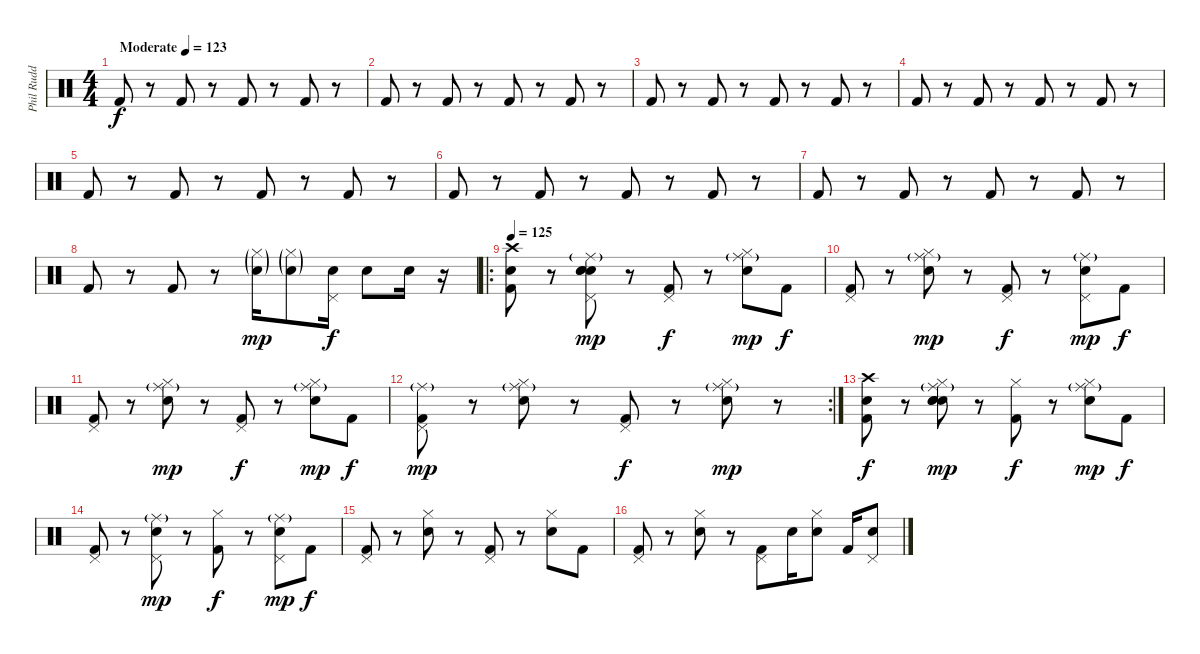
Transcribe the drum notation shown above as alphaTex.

\track ("Phil Rudd" "Phil Rudd") {instrument percussion}
\staff {score}
\articulation defaults
\ts (4 4)
\tempo (123 "Moderate")
\clef neutral
\ks c "Kick (hit) 2".8{dy f}
r.8 "Kick (hit) 2".8 r.8 "Kick (hit) 2".8 r.8 "Kick (hit) 2".8 r.8 |
"Kick (hit) 2".8 r.8 "Kick (hit) 2".8 r.8 "Kick (hit) 2".8 r.8 "Kick (hit) 2".8 r.8 |
"Kick (hit) 2".8 r.8 "Kick (hit) 2".8 r.8 "Kick (hit) 2".8 r.8 "Kick (hit) 2".8 r.8 |
"Kick (hit) 2".8 r.8 "Kick (hit) 2".8 r.8 "Kick (hit) 2".8 r.8 "Kick (hit) 2".8 r.8 |
"Kick (hit) 2".8 r.8 "Kick (hit) 2".8 r.8 "Kick (hit) 2".8 r.8 "Kick (hit) 2".8 r.8 |
"Kick (hit) 2".8 r.8 "Kick (hit) 2".8 r.8 "Kick (hit) 2".8 r.8 "Kick (hit) 2".8 r.8 |
"Kick (hit) 2".8 r.8 "Kick (hit) 2".8 r.8 "Kick (hit) 2".8 r.8 "Kick (hit) 2".8 r.8 |
"Kick (hit) 2".8 r.8 "Kick (hit) 2".8 r.8 ("Hi-Hat (closed)"{g} "Snare (hit) 2"{g}).16{dy mp} ("Snare (hit) 2"{g} "Hi-Hat (closed)"{g}).8 ("Pedal Hi-Hat (hit)" "Snare (hit) 2").16{dy f} "Snare (hit) 2".8 "Snare (hit) 2".16 r.16 |
\ro
\tempo 125
("Kick (hit) 2" "Crash high (hit)" "Snare (hit) 2").8 r.8 ("Ride (middle)"{g} "Snare (hit) 2" "Pedal Hi-Hat (hit)" "Snare (hit)" "Snare (hit)").8{dy mp} r.8 ("Kick (hit) 2" "Pedal Hi-Hat (hit)").8{dy f} r.8 ("Ride (middle)"{g} "Snare (hit) 2" "Hi-Hat (closed)").8{dy mp} "Kick (hit) 2".8{dy f} |
("Kick (hit) 2" "Pedal Hi-Hat (hit)").8 r.8 ("Snare (hit) 2" "Ride (middle)"{g} "Hi-Hat (closed)").8{dy mp} r.8 ("Kick (hit) 2" "Pedal Hi-Hat (hit)").8{dy f} r.8 ("Snare (hit) 2" "Ride (middle)"{g} "Pedal Hi-Hat (hit)").8{dy mp} "Kick (hit) 2".8{dy f} |
("Kick (hit) 2" "Pedal Hi-Hat (hit)").8 r.8 ("Snare (hit) 2" "Ride (middle)"{g} "Hi-Hat (closed)").8{dy mp} r.8 ("Kick (hit) 2" "Pedal Hi-Hat (hit)").8{dy f} r.8 ("Snare (hit) 2" "Hi-Hat (closed)" "Ride (middle)"{g}).8{dy mp} "Kick (hit) 2".8{dy f} |
\rc 2
("Kick (hit) 2" "Ride (middle)"{g} "Pedal Hi-Hat (hit)").8{dy mp} r.8 ("Snare (hit) 2" "Ride (middle)"{g} "Hi-Hat (closed)").8 r.8 ("Kick (hit) 2" "Pedal Hi-Hat (hit)").8{dy f} r.8 ("Snare (hit) 2" "Ride (middle)"{g} "Hi-Hat (closed)").8{dy mp} r.8 |
("Kick (hit) 2" "Crash high (hit)" "Snare (hit) 2").8{dy f} r.8 ("Hi-Hat (closed)" "Snare (hit) 2" "Ride (middle)"{g} "Snare (hit)" "Snare (hit)").8{dy mp} r.8 ("Kick (hit) 2" "Hi-Hat (closed)").8{dy f} r.8 ("Hi-Hat (closed)" "Snare (hit) 2" "Ride (middle)"{g}).8{dy mp} "Kick (hit) 2".8{dy f} |
("Kick (hit) 2" "Pedal Hi-Hat (hit)").8 r.8 ("Snare (hit) 2" "Ride (middle)"{g} "Pedal Hi-Hat (hit)").8{dy mp} r.8 ("Kick (hit) 2" "Hi-Hat (closed)").8{dy f} r.8 ("Snare (hit) 2" "Ride (middle)"{g} "Pedal Hi-Hat (hit)").8{dy mp} "Kick (hit) 2".8{dy f} |
("Kick (hit) 2" "Pedal Hi-Hat (hit)").8 r.8 ("Snare (hit) 2" "Hi-Hat (closed)").8 r.8 ("Kick (hit) 2" "Pedal Hi-Hat (hit)").8 r.8 ("Snare (hit) 2" "Hi-Hat (closed)").8 "Kick (hit) 2".8 |
("Kick (hit) 2" "Pedal Hi-Hat (hit)").8 r.8 ("Snare (hit) 2" "Hi-Hat (closed)").8 r.8 ("Kick (hit) 2" "Pedal Hi-Hat (hit)").8 "Snare (hit) 2".16 ("Snare (hit) 2" "Hi-Hat (closed)").8 "Kick (hit) 2".16 ("Snare (hit) 2" "Pedal Hi-Hat (hit)").8
